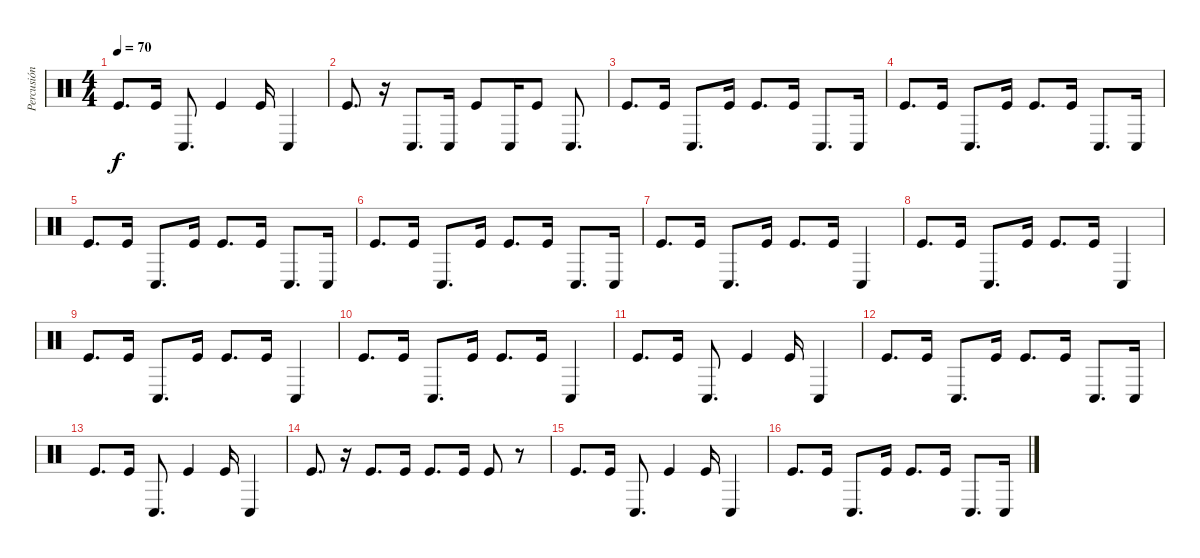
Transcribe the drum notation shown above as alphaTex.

\track ("Percusión" "Percusión") {instrument percussion}
\staff {score}
\articulation defaults
\ts (4 4)
\tempo 70
\clef neutral
\ks c "Kick (hit)".8{d dy f} "Kick (hit)".16 "Conga low (hit)".8{d} "Kick (hit)".4 "Kick (hit)".16 "Conga low (hit)".4
|
"Kick (hit)".8{d} r.16 "Conga low (hit)".8{d} "Conga low (hit)".16 "Kick (hit)".8 "Conga low (hit)".16 "Kick (hit)".8 "Conga low (hit)".8{d} |
"Kick (hit)".8{d} "Kick (hit)".16 "Conga low (hit)".8{d} "Kick (hit)".16 "Kick (hit)".8{d} "Kick (hit)".16 "Conga low (hit)".8{d} "Conga low (hit)".16 |
"Kick (hit)".8{d} "Kick (hit)".16 "Conga low (hit)".8{d} "Kick (hit)".16 "Kick (hit)".8{d} "Kick (hit)".16 "Conga low (hit)".8{d} "Conga low (hit)".16 |
"Kick (hit)".8{d} "Kick (hit)".16 "Conga low (hit)".8{d} "Kick (hit)".16 "Kick (hit)".8{d} "Kick (hit)".16 "Conga low (hit)".8{d} "Conga low (hit)".16 |
"Kick (hit)".8{d} "Kick (hit)".16 "Conga low (hit)".8{d} "Kick (hit)".16 "Kick (hit)".8{d} "Kick (hit)".16 "Conga low (hit)".8{d} "Conga low (hit)".16 |
"Kick (hit)".8{d} "Kick (hit)".16 "Conga low (hit)".8{d} "Kick (hit)".16 "Kick (hit)".8{d} "Kick (hit)".16 "Conga low (hit)".4 |
"Kick (hit)".8{d} "Kick (hit)".16 "Conga low (hit)".8{d} "Kick (hit)".16 "Kick (hit)".8{d} "Kick (hit)".16 "Conga low (hit)".4 |
"Kick (hit)".8{d} "Kick (hit)".16 "Conga low (hit)".8{d} "Kick (hit)".16 "Kick (hit)".8{d} "Kick (hit)".16 "Conga low (hit)".4 |
"Kick (hit)".8{d} "Kick (hit)".16 "Conga low (hit)".8{d} "Kick (hit)".16 "Kick (hit)".8{d} "Kick (hit)".16 "Conga low (hit)".4 |
"Kick (hit)".8{d} "Kick (hit)".16 "Conga low (hit)".8{d} "Kick (hit)".4 "Kick (hit)".16 "Conga low (hit)".4 |
"Kick (hit)".8{d} "Kick (hit)".16 "Conga low (hit)".8{d} "Kick (hit)".16 "Kick (hit)".8{d} "Kick (hit)".16 "Conga low (hit)".8{d} "Conga low (hit)".16 |
"Kick (hit)".8{d} "Kick (hit)".16 "Conga low (hit)".8{d} "Kick (hit)".4 "Kick (hit)".16 "Conga low (hit)".4 |
"Kick (hit)".8{d} r.16 "Kick (hit)".8{d} "Kick (hit)".16 "Kick (hit)".8{d} "Kick (hit)".16 "Kick (hit)".8 r.8 |
"Kick (hit)".8{d} "Kick (hit)".16 "Conga low (hit)".8{d} "Kick (hit)".4 "Kick (hit)".16 "Conga low (hit)".4 |
"Kick (hit)".8{d} "Kick (hit)".16 "Conga low (hit)".8{d} "Kick (hit)".16 "Kick (hit)".8{d} "Kick (hit)".16 "Conga low (hit)".8{d} "Conga low (hit)".16
